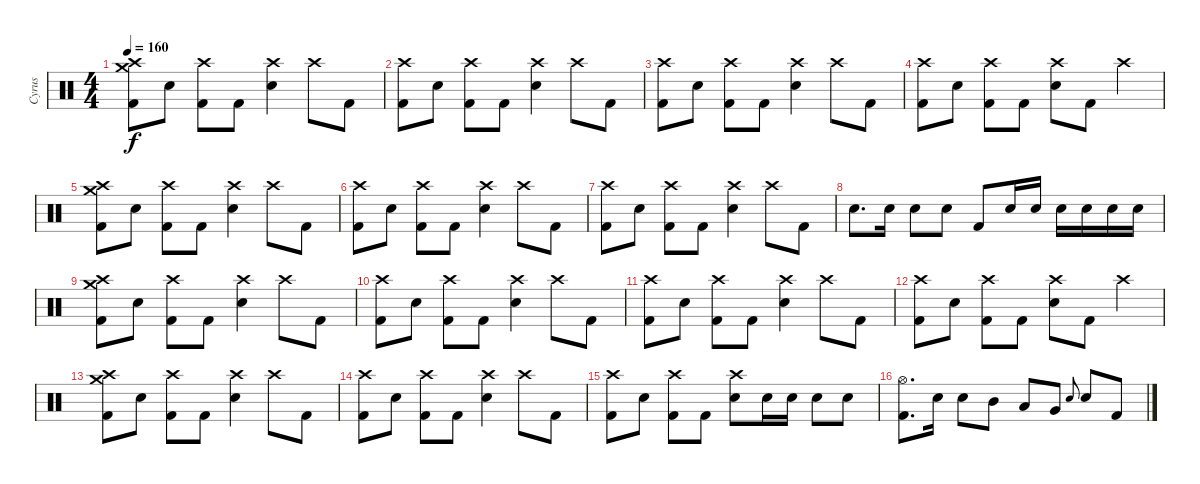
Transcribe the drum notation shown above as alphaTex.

\track ("Cyrus" "Cyrus") {instrument percussion}
\staff {score}
\articulation defaults
\ts (4 4)
\tempo 160
\clef neutral
\ks c
("Crash high (hit)" "Crash medium (hit)" "Kick (hit) 2").8{dy f} "Snare (hit) 2".8 ("Crash high (hit)" "Kick (hit) 2").8 "Kick (hit) 2".8 ("Crash high (hit)" "Snare (hit) 2").4 "Crash high (hit)".8 "Kick (hit) 2".8 |
("Crash high (hit)" "Kick (hit) 2").8 "Snare (hit) 2".8 ("Crash high (hit)" "Kick (hit) 2").8 "Kick (hit) 2".8 ("Crash high (hit)" "Snare (hit) 2").4 "Crash high (hit)".8 "Kick (hit) 2".8 |
("Crash high (hit)" "Kick (hit) 2").8 "Snare (hit) 2".8 ("Crash high (hit)" "Kick (hit) 2").8 "Kick (hit) 2".8 ("Crash high (hit)" "Snare (hit) 2").4 "Crash high (hit)".8 "Kick (hit) 2".8 |
("Crash high (hit)" "Kick (hit) 2").8 "Snare (hit) 2".8 ("Crash high (hit)" "Kick (hit) 2").8 "Kick (hit) 2".8 ("Crash high (hit)" "Snare (hit) 2").8 "Kick (hit) 2".8 "Crash high (hit)".4 |
("Crash high (hit)" "Crash medium (hit)" "Kick (hit) 2").8 "Snare (hit) 2".8 ("Crash high (hit)" "Kick (hit) 2").8 "Kick (hit) 2".8 ("Crash high (hit)" "Snare (hit) 2").4 "Crash high (hit)".8 "Kick (hit) 2".8 |
("Crash high (hit)" "Kick (hit) 2").8 "Snare (hit) 2".8 ("Crash high (hit)" "Kick (hit) 2").8 "Kick (hit) 2".8 ("Crash high (hit)" "Snare (hit) 2").4 "Crash high (hit)".8 "Kick (hit) 2".8 |
("Crash high (hit)" "Kick (hit) 2").8 "Snare (hit) 2".8 ("Crash high (hit)" "Kick (hit) 2").8 "Kick (hit) 2".8 ("Crash high (hit)" "Snare (hit) 2").4 "Crash high (hit)".8 "Kick (hit) 2".8 |
"Snare (hit) 2".8{d} "Snare (hit) 2".16 "Snare (hit) 2".8 "Snare (hit) 2".8 "Kick (hit) 2".8 "Snare (hit) 2".16 "Snare (hit) 2".16 "Snare (hit) 2".16 "Snare (hit) 2".16 "Snare (hit) 2".16 "Snare (hit) 2".16 |
("Crash high (hit)" "Crash medium (hit)" "Kick (hit) 2").8 "Snare (hit) 2".8 ("Crash high (hit)" "Kick (hit) 2").8 "Kick (hit) 2".8 ("Crash high (hit)" "Snare (hit) 2").4 "Crash high (hit)".8 "Kick (hit) 2".8 |
("Crash high (hit)" "Kick (hit) 2").8 "Snare (hit) 2".8 ("Crash high (hit)" "Kick (hit) 2").8 "Kick (hit) 2".8 ("Crash high (hit)" "Snare (hit) 2").4 "Crash high (hit)".8 "Kick (hit) 2".8 |
("Crash high (hit)" "Kick (hit) 2").8 "Snare (hit) 2".8 ("Crash high (hit)" "Kick (hit) 2").8 "Kick (hit) 2".8 ("Crash high (hit)" "Snare (hit) 2").4 "Crash high (hit)".8 "Kick (hit) 2".8 |
("Crash high (hit)" "Kick (hit) 2").8 "Snare (hit) 2".8 ("Crash high (hit)" "Kick (hit) 2").8 "Kick (hit) 2".8 ("Crash high (hit)" "Snare (hit) 2").8 "Kick (hit) 2".8 "Crash high (hit)".4 |
("Crash high (hit)" "Crash medium (hit)" "Kick (hit) 2").8 "Snare (hit) 2".8 ("Crash high (hit)" "Kick (hit) 2").8 "Kick (hit) 2".8 ("Crash high (hit)" "Snare (hit) 2").4 "Crash high (hit)".8 "Kick (hit) 2".8 |
("Crash high (hit)" "Kick (hit) 2").8 "Snare (hit) 2".8 ("Crash high (hit)" "Kick (hit) 2").8 "Kick (hit) 2".8 ("Crash high (hit)" "Snare (hit) 2").4 "Crash high (hit)".8 "Kick (hit) 2".8 |
("Crash high (hit)" "Kick (hit) 2").8 "Snare (hit) 2".8 ("Crash high (hit)" "Kick (hit) 2").8 "Kick (hit) 2".8 ("Crash high (hit)" "Snare (hit) 2").8 "Snare (hit) 2".16 "Snare (hit) 2".16 "Snare (hit) 2".8 "Snare (hit) 2".8 |
("Hi-Hat (open)" "Kick (hit) 2").8{d} "Snare (hit) 2".16 "Snare (hit) 2".8 "Mid Tom (hit)".8 "Low Tom (hit)".8 "Very Low Tom (hit)".8 "Snare (hit) 2".8{gr onbeat} "Snare (hit) 2".8 "Kick (hit) 2".8
